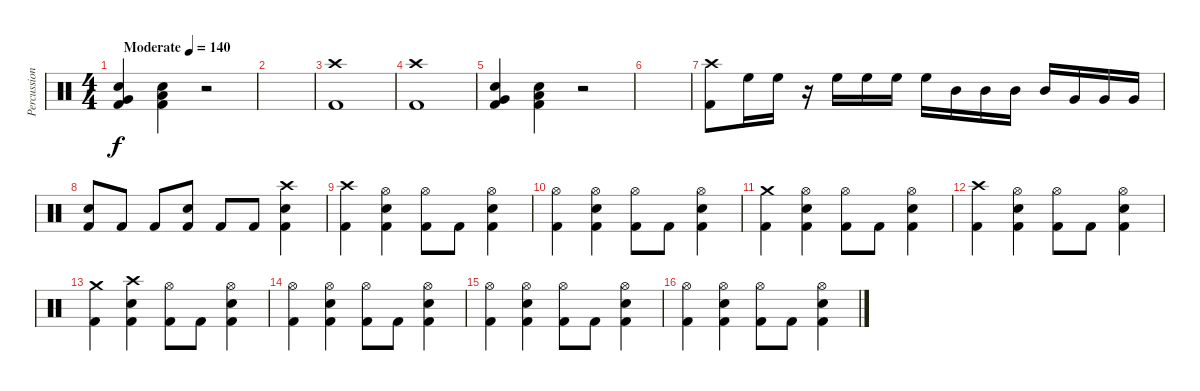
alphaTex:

\track ("Percussion" "Percussion") {instrument percussion}
\staff {score}
\articulation defaults
\ts (4 4)
\tempo (140 "Moderate")
\clef neutral
\ks c
("Snare (hit) 2" "Very Low Tom (hit)" "Kick (hit) 2").4{dy f} ("Snare (hit) 2" "Low Floor Tom (hit)" "Kick (hit) 2").4 r.2 |
|
("Crash high (hit)" "Kick (hit) 2").1 |
("Crash high (hit)" "Kick (hit) 2").1 |
("Snare (hit) 2" "Very Low Tom (hit)" "Kick (hit) 2").4 ("Snare (hit) 2" "Low Floor Tom (hit)" "Kick (hit) 2").4 r.2 |
|
("Crash high (hit)" "Kick (hit) 2").8 "High Floor Tom (hit)".16 "High Floor Tom (hit)".16 r.16 "High Floor Tom (hit)".16 "High Floor Tom (hit)".16 "High Floor Tom (hit)".16 "High Floor Tom (hit)".16 "Mid Tom (hit)".16 "Mid Tom (hit)".16 "Mid Tom (hit)".16 "Mid Tom (hit)".16 "Very Low Tom (hit)".16 "Very Low Tom (hit)".16 "Very Low Tom (hit)".16 |
("Snare (hit) 2" "Kick (hit) 2").8 "Kick (hit) 2".8 "Kick (hit) 2".8 ("Snare (hit) 2" "Kick (hit) 2").8 "Kick (hit) 2".8 "Kick (hit) 2".8 ("Crash high (hit)" "Snare (hit) 2" "Kick (hit) 2").4 |
("Crash high (hit)" "Kick (hit) 2").4 ("Snare (hit) 2" "Hi-Hat (open)" "Kick (hit) 2").4 ("Hi-Hat (open)" "Kick (hit) 2").8 "Kick (hit) 2".8 ("Snare (hit) 2" "Hi-Hat (open)" "Kick (hit) 2").4 |
("Hi-Hat (open)" "Kick (hit) 2").4 ("Snare (hit) 2" "Hi-Hat (open)" "Kick (hit) 2").4 ("Hi-Hat (open)" "Kick (hit) 2").8 "Kick (hit) 2".8 ("Snare (hit) 2" "Hi-Hat (open)" "Kick (hit) 2").4 |
("Crash medium (hit)" "Kick (hit) 2").4 ("Snare (hit) 2" "Hi-Hat (open)" "Kick (hit) 2").4 ("Hi-Hat (open)" "Kick (hit) 2").8 "Kick (hit) 2".8 ("Snare (hit) 2" "Hi-Hat (open)" "Kick (hit) 2").4 |
("Crash high (hit)" "Kick (hit) 2").4 ("Snare (hit) 2" "Hi-Hat (open)" "Kick (hit) 2").4 ("Hi-Hat (open)" "Kick (hit) 2").8 "Kick (hit) 2".8 ("Snare (hit) 2" "Hi-Hat (open)" "Kick (hit) 2").4 |
("Crash medium (hit)" "Kick (hit) 2").4 ("Crash high (hit)" "Snare (hit) 2" "Kick (hit) 2").4 ("Hi-Hat (open)" "Kick (hit) 2").8 "Kick (hit) 2".8 ("Snare (hit) 2" "Hi-Hat (open)" "Kick (hit) 2").4 |
("Hi-Hat (open)" "Kick (hit) 2").4 ("Snare (hit) 2" "Hi-Hat (open)" "Kick (hit) 2").4 ("Hi-Hat (open)" "Kick (hit) 2").8 "Kick (hit) 2".8 ("Snare (hit) 2" "Hi-Hat (open)" "Kick (hit) 2").4 |
("Hi-Hat (open)" "Kick (hit) 2").4 ("Snare (hit) 2" "Hi-Hat (open)" "Kick (hit) 2").4 ("Hi-Hat (open)" "Kick (hit) 2").8 "Kick (hit) 2".8 ("Snare (hit) 2" "Hi-Hat (open)" "Kick (hit) 2").4 |
("Hi-Hat (open)" "Kick (hit) 2").4 ("Snare (hit) 2" "Hi-Hat (open)" "Kick (hit) 2").4 ("Hi-Hat (open)" "Kick (hit) 2").8 "Kick (hit) 2".8 ("Snare (hit) 2" "Hi-Hat (open)" "Kick (hit) 2").4
